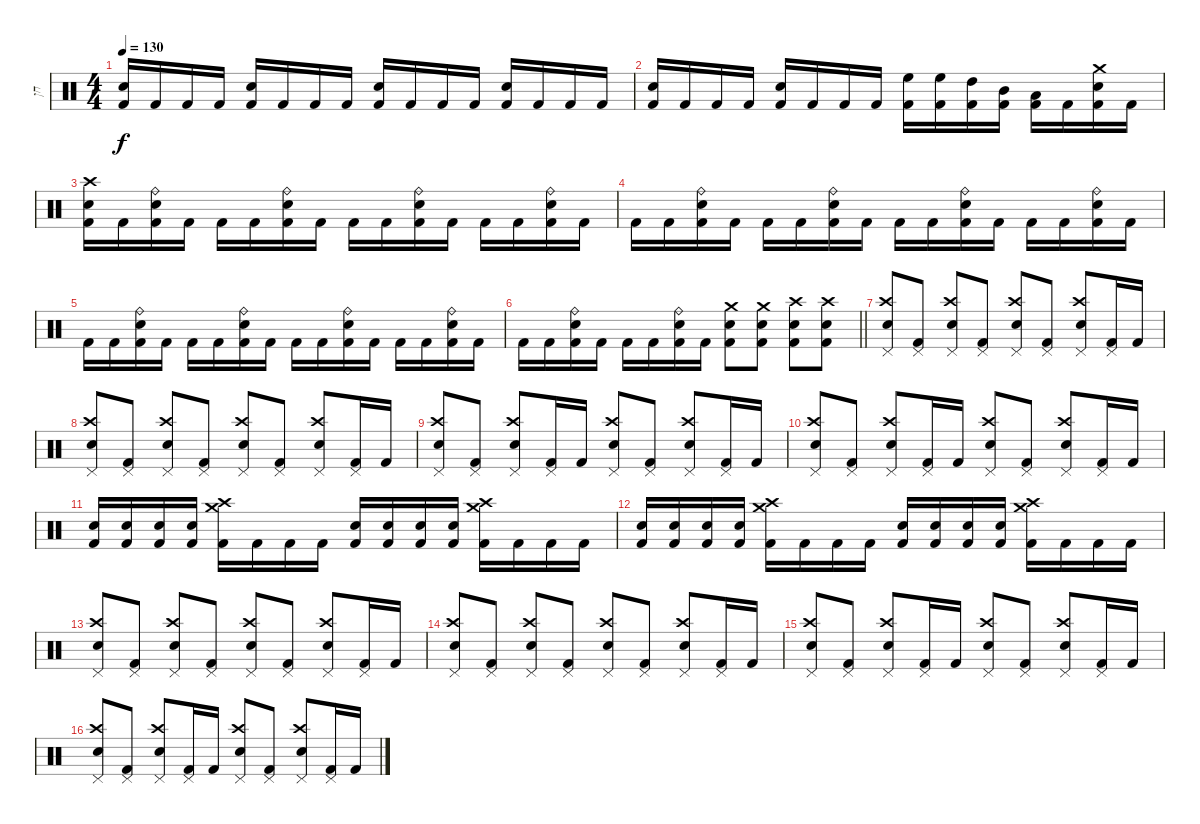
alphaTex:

\track ("חן" "חן") {instrument percussion}
\staff {score}
\articulation defaults
\ts (4 4)
\tempo 130
\clef neutral
\ks c
("Electric Snare (hit)" "Kick (hit) 2").16{dy f} "Kick (hit) 2".16 "Kick (hit) 2".16 "Kick (hit) 2".16 ("Electric Snare (hit)" "Kick (hit) 2").16 "Kick (hit) 2".16 "Kick (hit) 2".16 "Kick (hit) 2".16 ("Electric Snare (hit)" "Kick (hit) 2").16 "Kick (hit) 2".16 "Kick (hit) 2".16 "Kick (hit) 2".16 ("Electric Snare (hit)" "Kick (hit) 2").16 "Kick (hit) 2".16 "Kick (hit) 2".16 "Kick (hit) 2".16 |
("Electric Snare (hit)" "Kick (hit) 2").16 "Kick (hit) 2".16 "Kick (hit) 2".16 "Kick (hit) 2".16 ("Electric Snare (hit)" "Kick (hit) 2").16 "Kick (hit) 2".16 "Kick (hit) 2".16 "Kick (hit) 2".16 ("High Floor Tom (hit)" "Kick (hit) 2").16 ("High Floor Tom (hit)" "Kick (hit) 2").16 ("High Tom (hit)" "Kick (hit) 2").16 ("Mid Tom (hit)" "Kick (hit) 2").16 ("Low Tom (hit)" "Kick (hit) 2").16 "Kick (hit) 2".16 ("Crash medium (hit)" "Electric Snare (hit)" "Kick (hit) 2").16 "Kick (hit) 2".16 |
("Crash high (hit)" "Electric Snare (hit)" "Kick (hit) 2").16 "Kick (hit) 2".16 ("Ride (bell)" "Electric Snare (hit)" "Kick (hit) 2").16 "Kick (hit) 2".16 "Kick (hit) 2".16 "Kick (hit) 2".16 ("Ride (bell)" "Electric Snare (hit)" "Kick (hit) 2").16 "Kick (hit) 2".16 "Kick (hit) 2".16 "Kick (hit) 2".16 ("Ride (bell)" "Electric Snare (hit)" "Kick (hit) 2").16 "Kick (hit) 2".16 "Kick (hit) 2".16 "Kick (hit) 2".16 ("Ride (bell)" "Electric Snare (hit)" "Kick (hit) 2").16 "Kick (hit) 2".16 |
"Kick (hit) 2".16 "Kick (hit) 2".16 ("Ride (bell)" "Electric Snare (hit)" "Kick (hit) 2").16 "Kick (hit) 2".16 "Kick (hit) 2".16 "Kick (hit) 2".16 ("Ride (bell)" "Electric Snare (hit)" "Kick (hit) 2").16 "Kick (hit) 2".16 "Kick (hit) 2".16 "Kick (hit) 2".16 ("Ride (bell)" "Electric Snare (hit)" "Kick (hit) 2").16 "Kick (hit) 2".16 "Kick (hit) 2".16 "Kick (hit) 2".16 ("Ride (bell)" "Electric Snare (hit)" "Kick (hit) 2").16 "Kick (hit) 2".16 |
"Kick (hit) 2".16 "Kick (hit) 2".16 ("Ride (bell)" "Electric Snare (hit)" "Kick (hit) 2").16 "Kick (hit) 2".16 "Kick (hit) 2".16 "Kick (hit) 2".16 ("Ride (bell)" "Electric Snare (hit)" "Kick (hit) 2").16 "Kick (hit) 2".16 "Kick (hit) 2".16 "Kick (hit) 2".16 ("Ride (bell)" "Electric Snare (hit)" "Kick (hit) 2").16 "Kick (hit) 2".16 "Kick (hit) 2".16 "Kick (hit) 2".16 ("Ride (bell)" "Electric Snare (hit)" "Kick (hit) 2").16 "Kick (hit) 2".16 |
\barLineRight lightlight "Kick (hit) 2".16 "Kick (hit) 2".16
("Ride (bell)" "Electric Snare (hit)" "Kick (hit) 2").16 "Kick (hit) 2".16 "Kick (hit) 2".16 "Kick (hit) 2".16 ("Ride (bell)" "Electric Snare (hit)" "Kick (hit) 2").16 "Kick (hit) 2".16 ("Crash medium (hit)" "Electric Snare (hit)" "Kick (hit) 2").8 ("Crash medium (hit)" "Electric Snare (hit)" "Kick (hit) 2").8 ("Crash high (hit)" "Electric Snare (hit)" "Kick (hit) 2").8 ("Crash high (hit)" "Electric Snare (hit)" "Kick (hit) 2").8 |
("Crash high (hit)" "Electric Snare (hit)" "Pedal Hi-Hat (hit)").8 ("Pedal Hi-Hat (hit)" "Kick (hit) 2").8 ("Crash high (hit)" "Electric Snare (hit)" "Pedal Hi-Hat (hit)").8 ("Pedal Hi-Hat (hit)" "Kick (hit) 2").8 ("Crash high (hit)" "Electric Snare (hit)" "Pedal Hi-Hat (hit)").8 ("Pedal Hi-Hat (hit)" "Kick (hit) 2").8 ("Crash high (hit)" "Electric Snare (hit)" "Pedal Hi-Hat (hit)").8 ("Pedal Hi-Hat (hit)" "Kick (hit) 2").16 "Kick (hit) 2".16 |
("Crash high (hit)" "Electric Snare (hit)" "Pedal Hi-Hat (hit)").8 ("Pedal Hi-Hat (hit)" "Kick (hit) 2").8 ("Crash high (hit)" "Electric Snare (hit)" "Pedal Hi-Hat (hit)").8 ("Pedal Hi-Hat (hit)" "Kick (hit) 2").8 ("Crash high (hit)" "Electric Snare (hit)" "Pedal Hi-Hat (hit)").8 ("Pedal Hi-Hat (hit)" "Kick (hit) 2").8 ("Crash high (hit)" "Electric Snare (hit)" "Pedal Hi-Hat (hit)").8 ("Pedal Hi-Hat (hit)" "Kick (hit) 2").16 "Kick (hit) 2".16 |
("Crash high (hit)" "Electric Snare (hit)" "Pedal Hi-Hat (hit)").8 ("Pedal Hi-Hat (hit)" "Kick (hit) 2").8 ("Crash high (hit)" "Electric Snare (hit)" "Pedal Hi-Hat (hit)").8 ("Pedal Hi-Hat (hit)" "Kick (hit) 2").16 "Kick (hit) 2".16 ("Crash high (hit)" "Electric Snare (hit)" "Pedal Hi-Hat (hit)").8 ("Pedal Hi-Hat (hit)" "Kick (hit) 2").8 ("Crash high (hit)" "Electric Snare (hit)" "Pedal Hi-Hat (hit)").8 ("Pedal Hi-Hat (hit)" "Kick (hit) 2").16 "Kick (hit) 2".16 |
("Crash high (hit)" "Electric Snare (hit)" "Pedal Hi-Hat (hit)").8 ("Pedal Hi-Hat (hit)" "Kick (hit) 2").8 ("Crash high (hit)" "Electric Snare (hit)" "Pedal Hi-Hat (hit)").8 ("Pedal Hi-Hat (hit)" "Kick (hit) 2").16 "Kick (hit) 2".16 ("Crash high (hit)" "Electric Snare (hit)" "Pedal Hi-Hat (hit)").8 ("Pedal Hi-Hat (hit)" "Kick (hit) 2").8 ("Crash high (hit)" "Electric Snare (hit)" "Pedal Hi-Hat (hit)").8 ("Pedal Hi-Hat (hit)" "Kick (hit) 2").16 "Kick (hit) 2".16 |
("Electric Snare (hit)" "Kick (hit) 2").16 ("Electric Snare (hit)" "Kick (hit) 2").16 ("Electric Snare (hit)" "Kick (hit) 2").16 ("Electric Snare (hit)" "Kick (hit) 2").16 ("Crash high (hit)" "Crash medium (hit)" "Kick (hit) 2").16 "Kick (hit) 2".16 "Kick (hit) 2".16 "Kick (hit) 2".16 ("Electric Snare (hit)" "Kick (hit) 2").16 ("Electric Snare (hit)" "Kick (hit) 2").16 ("Electric Snare (hit)" "Kick (hit) 2").16 ("Electric Snare (hit)" "Kick (hit) 2").16 ("Crash high (hit)" "Crash medium (hit)" "Kick (hit) 2").16 "Kick (hit) 2".16 "Kick (hit) 2".16 "Kick (hit) 2".16 |
("Electric Snare (hit)" "Kick (hit) 2").16 ("Electric Snare (hit)" "Kick (hit) 2").16 ("Electric Snare (hit)" "Kick (hit) 2").16 ("Electric Snare (hit)" "Kick (hit) 2").16 ("Crash high (hit)" "Crash medium (hit)" "Kick (hit) 2").16 "Kick (hit) 2".16 "Kick (hit) 2".16 "Kick (hit) 2".16 ("Electric Snare (hit)" "Kick (hit) 2").16 ("Electric Snare (hit)" "Kick (hit) 2").16 ("Electric Snare (hit)" "Kick (hit) 2").16 ("Electric Snare (hit)" "Kick (hit) 2").16 ("Crash high (hit)" "Crash medium (hit)" "Kick (hit) 2").16 "Kick (hit) 2".16 "Kick (hit) 2".16 "Kick (hit) 2".16 |
("Crash high (hit)" "Electric Snare (hit)" "Pedal Hi-Hat (hit)").8 ("Pedal Hi-Hat (hit)" "Kick (hit) 2").8 ("Crash high (hit)" "Electric Snare (hit)" "Pedal Hi-Hat (hit)").8 ("Pedal Hi-Hat (hit)" "Kick (hit) 2").8 ("Crash high (hit)" "Electric Snare (hit)" "Pedal Hi-Hat (hit)").8 ("Pedal Hi-Hat (hit)" "Kick (hit) 2").8 ("Crash high (hit)" "Electric Snare (hit)" "Pedal Hi-Hat (hit)").8 ("Pedal Hi-Hat (hit)" "Kick (hit) 2").16 "Kick (hit) 2".16 |
("Crash high (hit)" "Electric Snare (hit)" "Pedal Hi-Hat (hit)").8 ("Pedal Hi-Hat (hit)" "Kick (hit) 2").8 ("Crash high (hit)" "Electric Snare (hit)" "Pedal Hi-Hat (hit)").8 ("Pedal Hi-Hat (hit)" "Kick (hit) 2").8 ("Crash high (hit)" "Electric Snare (hit)" "Pedal Hi-Hat (hit)").8 ("Pedal Hi-Hat (hit)" "Kick (hit) 2").8 ("Crash high (hit)" "Electric Snare (hit)" "Pedal Hi-Hat (hit)").8 ("Pedal Hi-Hat (hit)" "Kick (hit) 2").16 "Kick (hit) 2".16 |
("Crash high (hit)" "Electric Snare (hit)" "Pedal Hi-Hat (hit)").8 ("Pedal Hi-Hat (hit)" "Kick (hit) 2").8 ("Crash high (hit)" "Electric Snare (hit)" "Pedal Hi-Hat (hit)").8 ("Pedal Hi-Hat (hit)" "Kick (hit) 2").16 "Kick (hit) 2".16 ("Crash high (hit)" "Electric Snare (hit)" "Pedal Hi-Hat (hit)").8 ("Pedal Hi-Hat (hit)" "Kick (hit) 2").8 ("Crash high (hit)" "Electric Snare (hit)" "Pedal Hi-Hat (hit)").8 ("Pedal Hi-Hat (hit)" "Kick (hit) 2").16 "Kick (hit) 2".16 |
("Crash high (hit)" "Electric Snare (hit)" "Pedal Hi-Hat (hit)").8 ("Pedal Hi-Hat (hit)" "Kick (hit) 2").8 ("Crash high (hit)" "Electric Snare (hit)" "Pedal Hi-Hat (hit)").8 ("Pedal Hi-Hat (hit)" "Kick (hit) 2").16 "Kick (hit) 2".16 ("Crash high (hit)" "Electric Snare (hit)" "Pedal Hi-Hat (hit)").8 ("Pedal Hi-Hat (hit)" "Kick (hit) 2").8 ("Crash high (hit)" "Electric Snare (hit)" "Pedal Hi-Hat (hit)").8 ("Pedal Hi-Hat (hit)" "Kick (hit) 2").16 "Kick (hit) 2".16
